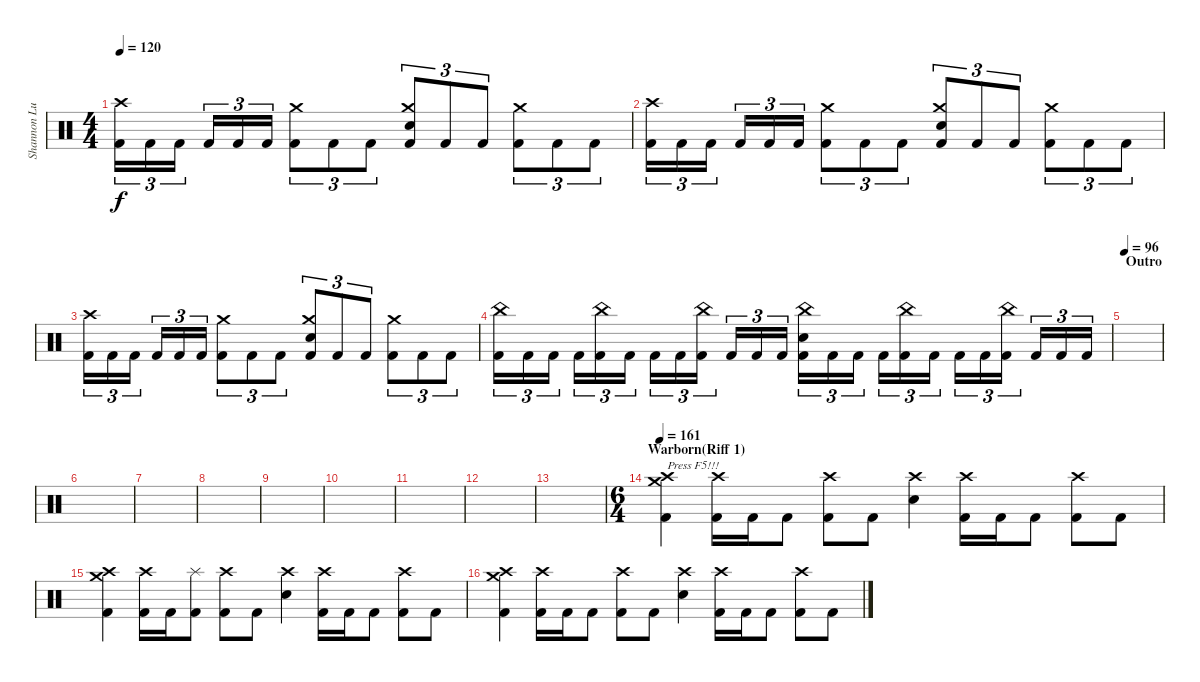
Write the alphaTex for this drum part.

\track ("Shannon Lucas (Drums)" "Shannon Lu") {instrument percussion}
\staff {score}
\articulation defaults
\ts (4 4)
\tempo 120
\clef neutral
\ks c
("Crash high (hit)" "Kick (hit) 2").16{tu (3 2) dy f volume 5} "Kick (hit) 2".16{tu (3 2)} "Kick (hit) 2".16{tu (3 2)} "Kick (hit) 2".16{tu (3 2)} "Kick (hit) 2".16{tu (3 2)} "Kick (hit) 2".16{tu (3 2)} ("Crash medium (hit)" "Kick (hit) 2").8{tu (3 2)} "Kick (hit) 2".8{tu (3 2)} "Kick (hit) 2".8{tu (3 2)} ("Crash medium (hit)" "Snare (hit) 2" "Kick (hit) 2").8{tu (3 2)} "Kick (hit) 2".8{tu (3 2)} "Kick (hit) 2".8{tu (3 2)} ("Crash medium (hit)" "Kick (hit) 2").8{tu (3 2)} "Kick (hit) 2".8{tu (3 2)} "Kick (hit) 2".8{tu (3 2)} |
("Crash high (hit)" "Kick (hit) 2").16{tu (3 2) volume 3} "Kick (hit) 2".16{tu (3 2)} "Kick (hit) 2".16{tu (3 2)} "Kick (hit) 2".16{tu (3 2)} "Kick (hit) 2".16{tu (3 2)} "Kick (hit) 2".16{tu (3 2)} ("Crash medium (hit)" "Kick (hit) 2").8{tu (3 2)} "Kick (hit) 2".8{tu (3 2)} "Kick (hit) 2".8{tu (3 2)} ("Crash medium (hit)" "Snare (hit) 2" "Kick (hit) 2").8{tu (3 2)} "Kick (hit) 2".8{tu (3 2)} "Kick (hit) 2".8{tu (3 2)} ("Crash medium (hit)" "Kick (hit) 2").8{tu (3 2)} "Kick (hit) 2".8{tu (3 2)} "Kick (hit) 2".8{tu (3 2)} |
("Crash high (hit)" "Kick (hit) 2").16{tu (3 2)} "Kick (hit) 2".16{tu (3 2)} "Kick (hit) 2".16{tu (3 2)} "Kick (hit) 2".16{tu (3 2)} "Kick (hit) 2".16{tu (3 2)} "Kick (hit) 2".16{tu (3 2)} ("Crash medium (hit)" "Kick (hit) 2").8{tu (3 2)} "Kick (hit) 2".8{tu (3 2)} "Kick (hit) 2".8{tu (3 2)} ("Crash medium (hit)" "Snare (hit) 2" "Kick (hit) 2").8{tu (3 2)} "Kick (hit) 2".8{tu (3 2)} "Kick (hit) 2".8{tu (3 2)} ("Crash medium (hit)" "Kick (hit) 2").8{tu (3 2)} "Kick (hit) 2".8{tu (3 2)} "Kick (hit) 2".8{tu (3 2)} |
("China (hit)" "Kick (hit) 2").16{tu (3 2)} "Kick (hit) 2".16{tu (3 2)} "Kick (hit) 2".16{tu (3 2)} "Kick (hit) 2".16{tu (3 2)} ("China (hit)" "Kick (hit) 2").16{tu (3 2) volume 2} "Kick (hit) 2".16{tu (3 2)} "Kick (hit) 2".16{tu (3 2)} "Kick (hit) 2".16{tu (3 2)} ("China (hit)" "Kick (hit) 2").16{tu (3 2)} "Kick (hit) 2".16{tu (3 2)} "Kick (hit) 2".16{tu (3 2)} "Kick (hit) 2".16{tu (3 2)} ("Snare (hit) 2" "China (hit)" "Kick (hit) 2").16{tu (3 2)} "Kick (hit) 2".16{tu (3 2)} "Kick (hit) 2".16{tu (3 2)} "Kick (hit) 2".16{tu (3 2)} ("China (hit)" "Kick (hit) 2").16{tu (3 2)} "Kick (hit) 2".16{tu (3 2)} "Kick (hit) 2".16{tu (3 2)} "Kick (hit) 2".16{tu (3 2)} ("China (hit)" "Kick (hit) 2").16{tu (3 2)} "Kick (hit) 2".16{tu (3 2)} "Kick (hit) 2".16{tu (3 2)} "Kick (hit) 2".16{tu (3 2)} |
\section ("" "Outro")
\tempo 96
|
|
|
|
|
|
|
|
|
\ts (6 4)
\section ("" "Warborn(Riff 1)")
\tempo 161
("Crash medium (hit)" "Crash high (hit)" "Kick (hit) 2").4{txt "Press F5!!!" volume 10} ("Crash high (hit)" "Kick (hit) 2").16 "Kick (hit) 2".16 "Kick (hit) 2".8 ("Crash high (hit)" "Kick (hit) 2").8 "Kick (hit) 2".8 ("Crash high (hit)" "Snare (hit) 2").4 ("Crash high (hit)" "Kick (hit) 2").16 "Kick (hit) 2".16 "Kick (hit) 2".8 ("Crash high (hit)" "Kick (hit) 2").8 "Kick (hit) 2".8 |
("Crash medium (hit)" "Crash high (hit)" "Kick (hit) 2").4 ("Crash high (hit)" "Kick (hit) 2").16 "Kick (hit) 2".16 ("Splash (hit)" "Kick (hit) 2").8 ("Crash high (hit)" "Kick (hit) 2").8 "Kick (hit) 2".8 ("Crash high (hit)" "Snare (hit) 2").4 ("Crash high (hit)" "Kick (hit) 2").16 "Kick (hit) 2".16 "Kick (hit) 2".8 ("Crash high (hit)" "Kick (hit) 2").8 "Kick (hit) 2".8 |
("Crash medium (hit)" "Crash high (hit)" "Kick (hit) 2").4 ("Crash high (hit)" "Kick (hit) 2").16 "Kick (hit) 2".16 "Kick (hit) 2".8 ("Crash high (hit)" "Kick (hit) 2").8 "Kick (hit) 2".8 ("Crash high (hit)" "Snare (hit) 2").4 ("Crash high (hit)" "Kick (hit) 2").16 "Kick (hit) 2".16 "Kick (hit) 2".8 ("Crash high (hit)" "Kick (hit) 2").8 "Kick (hit) 2".8
